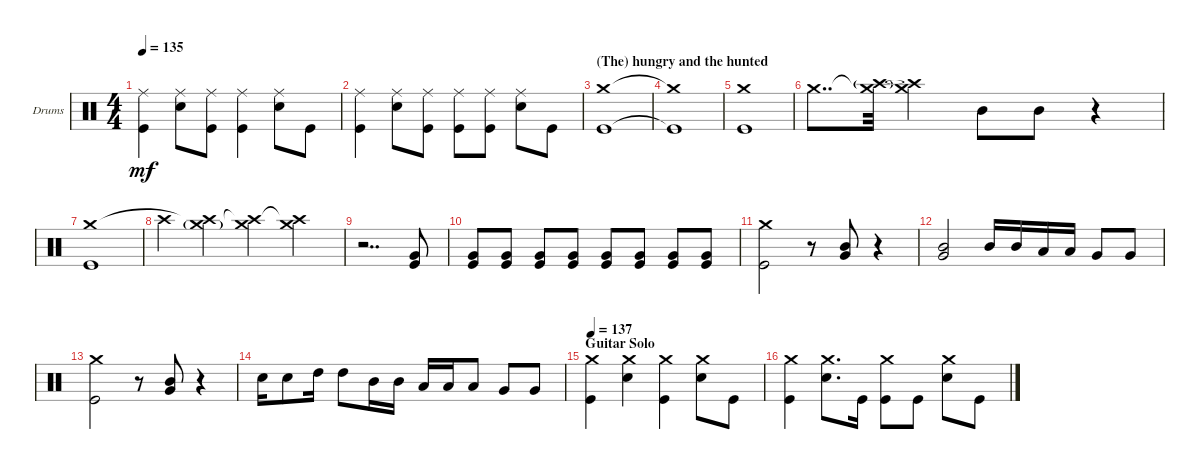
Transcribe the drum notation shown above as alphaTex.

\defaultSystemsLayout 4
\bracketExtendMode groupsimilarinstruments
\firstSystemTrackNameOrientation horizontal
\otherSystemsTrackNameOrientation horizontal
\track ("Drumkit" "Drums") {instrument percussion}
\staff {score}
\articulation defaults
\ts (4 4)
\tempo 135
\clef neutral
\scale
0.333333
\ks c
("Kick (hit)" "Ride (middle)").4{dy mf} ("Snare (hit) 2" "Ride (middle)").8 ("Kick (hit)" "Ride (middle)").8 ("Kick (hit)" "Ride (middle)").4 ("Snare (hit) 2" "Ride (middle)").8 "Kick (hit)".8 |
\scale
0.333333 ("Kick (hit)" "Ride (middle)").4 ("Snare (hit) 2" "Ride (middle)").8 ("Kick (hit)" "Ride (middle)").8 ("Kick (hit)" "Ride (middle)").8 ("Kick (hit)" "Ride (middle)").8 ("Snare (hit) 2" "Ride (middle)").8 "Kick (hit)".8 |
\section ("" "(The) hungry and the hunted")
\scale
0.333333 ("Kick (hit)" "Crash medium (hit)").1 |
\scale
0.333333 ("Kick (hit)"{t} "Crash medium (hit)"{t}).1 |
\scale
0.333333 ("Kick (hit)" "Crash medium (hit)").1 |
\scale
0.333333 "Crash medium (hit)".8{dd} ("Crash medium (hit)"{t} "Crash high (hit)"{g}).32 ("Crash high (hit)"{t} "Crash medium (hit)"{t}).4 "Mid Tom (hit)".8 "Mid Tom (hit)".8 r.4 |
\scale
0.333333 ("Kick (hit)" "Crash medium (hit)").1 |
\scale
0.333333 "Crash high (hit)".4 ("Crash medium (hit)"{g} "Crash high (hit)"{t}).4 ("Crash high (hit)"{t} "Crash medium (hit)").4 ("Crash high (hit)"{t} "Crash medium (hit)").4 |
\scale
0.333333 r.2{dd} ("Kick (hit)" "Very Low Tom (hit)").8 |
\scale
0.333333 ("Kick (hit)" "Very Low Tom (hit)").8 ("Kick (hit)" "Very Low Tom (hit)").8 ("Kick (hit)" "Very Low Tom (hit)").8 ("Kick (hit)" "Very Low Tom (hit)").8 ("Kick (hit)" "Very Low Tom (hit)").8 ("Kick (hit)" "Very Low Tom (hit)").8 ("Kick (hit)" "Very Low Tom (hit)").8 ("Kick (hit)" "Very Low Tom (hit)").8 |
\scale
0.333333 ("Kick (hit)" "Crash medium (hit)").2 r.8 ("Very Low Tom (hit)" "Mid Tom (hit)").8 r.4 |
\scale
0.333333 ("Very Low Tom (hit)" "Mid Tom (hit)").2 "Mid Tom (hit)".16 "Mid Tom (hit)".16 "Low Tom (hit)".16 "Low Tom (hit)".16 "Very Low Tom (hit)".8 "Very Low Tom (hit)".8 |
\scale
0.333333 ("Kick (hit)" "Crash medium (hit)").2 r.8 ("Very Low Tom (hit)" "Mid Tom (hit)").8 r.4 |
\scale
0.333333 "Snare (hit) 2".16 "Snare (hit) 2".8 "High Tom (hit)".16 "High Tom (hit)".8 "Mid Tom (hit)".16 "Mid Tom (hit)".16 "Low Tom (hit)".16 "Low Tom (hit)".16 "Low Tom (hit)".8 "Very Low Tom (hit)".8 "Very Low Tom (hit)".8 |
\section ("" "Guitar Solo")
\tempo 137
\scale
0.333333 ("Kick (hit)" "Crash medium (hit)").4 ("Snare (hit) 2" "Crash medium (hit)").4 ("Kick (hit)" "Crash medium (hit)").4 ("Snare (hit) 2" "Crash medium (hit)").8 "Kick (hit)".8 |
\scale
0.333333 ("Kick (hit)" "Crash medium (hit)").4 ("Snare (hit) 2" "Crash medium (hit)").8{d} "Kick (hit)".16 ("Kick (hit)" "Crash medium (hit)").8 "Kick (hit)".8 ("Snare (hit) 2" "Crash medium (hit)").8 "Kick (hit)".8
